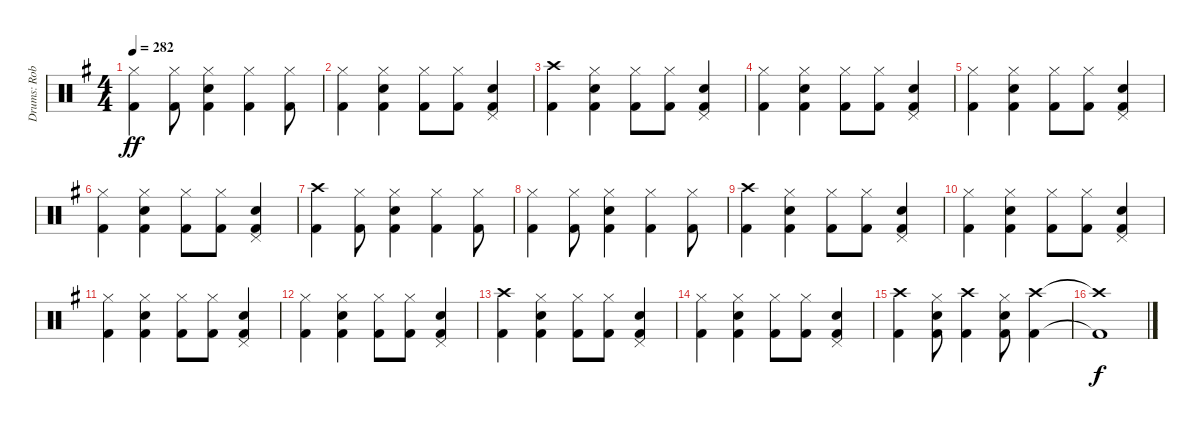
\track ("Drums: Rob" "Drums: Rob") {instrument percussion}
\staff {score}
\articulation defaults
\ts (4 4)
\tempo 282
\clef neutral
\ks g
("Hi-Hat (closed)" "Kick (hit) 2").4{dy ff} ("Hi-Hat (closed)" "Kick (hit) 2").8 ("Hi-Hat (closed)" "Snare (hit) 2" "Kick (hit) 2").4 ("Hi-Hat (closed)" "Kick (hit) 2").4 ("Hi-Hat (closed)" "Kick (hit) 2").8 |
("Hi-Hat (closed)" "Kick (hit) 2").4 ("Hi-Hat (closed)" "Snare (hit) 2" "Kick (hit) 2").4 ("Hi-Hat (closed)" "Kick (hit) 2").8 ("Hi-Hat (closed)" "Kick (hit) 2").8 ("Pedal Hi-Hat (hit)" "Snare (hit) 2" "Kick (hit) 2").4 |
("Crash high (hit)" "Kick (hit) 2").4 ("Hi-Hat (closed)" "Snare (hit) 2" "Kick (hit) 2").4 ("Hi-Hat (closed)" "Kick (hit) 2").8 ("Hi-Hat (closed)" "Kick (hit) 2").8 ("Pedal Hi-Hat (hit)" "Snare (hit) 2" "Kick (hit) 2").4 |
("Hi-Hat (closed)" "Kick (hit) 2").4 ("Hi-Hat (closed)" "Snare (hit) 2" "Kick (hit) 2").4 ("Hi-Hat (closed)" "Kick (hit) 2").8 ("Hi-Hat (closed)" "Kick (hit) 2").8 ("Pedal Hi-Hat (hit)" "Snare (hit) 2" "Kick (hit) 2").4 |
("Hi-Hat (closed)" "Kick (hit) 2").4 ("Hi-Hat (closed)" "Snare (hit) 2" "Kick (hit) 2").4 ("Hi-Hat (closed)" "Kick (hit) 2").8 ("Hi-Hat (closed)" "Kick (hit) 2").8 ("Pedal Hi-Hat (hit)" "Snare (hit) 2" "Kick (hit) 2").4 |
("Hi-Hat (closed)" "Kick (hit) 2").4 ("Hi-Hat (closed)" "Snare (hit) 2" "Kick (hit) 2").4 ("Hi-Hat (closed)" "Kick (hit) 2").8 ("Hi-Hat (closed)" "Kick (hit) 2").8 ("Pedal Hi-Hat (hit)" "Snare (hit) 2" "Kick (hit) 2").4 |
("Crash high (hit)" "Kick (hit) 2").4 ("Hi-Hat (closed)" "Kick (hit) 2").8 ("Hi-Hat (closed)" "Snare (hit) 2" "Kick (hit) 2").4 ("Hi-Hat (closed)" "Kick (hit) 2").4 ("Hi-Hat (closed)" "Kick (hit) 2").8 |
("Hi-Hat (closed)" "Kick (hit) 2").4 ("Hi-Hat (closed)" "Kick (hit) 2").8 ("Hi-Hat (closed)" "Snare (hit) 2" "Kick (hit) 2").4 ("Hi-Hat (closed)" "Kick (hit) 2").4 ("Hi-Hat (closed)" "Kick (hit) 2").8 |
("Crash high (hit)" "Kick (hit) 2").4 ("Hi-Hat (closed)" "Snare (hit) 2" "Kick (hit) 2").4 ("Hi-Hat (closed)" "Kick (hit) 2").8 ("Hi-Hat (closed)" "Kick (hit) 2").8 ("Pedal Hi-Hat (hit)" "Snare (hit) 2" "Kick (hit) 2").4 |
("Hi-Hat (closed)" "Kick (hit) 2").4 ("Hi-Hat (closed)" "Snare (hit) 2" "Kick (hit) 2").4 ("Hi-Hat (closed)" "Kick (hit) 2").8 ("Hi-Hat (closed)" "Kick (hit) 2").8 ("Pedal Hi-Hat (hit)" "Snare (hit) 2" "Kick (hit) 2").4 |
("Hi-Hat (closed)" "Kick (hit) 2").4 ("Hi-Hat (closed)" "Snare (hit) 2" "Kick (hit) 2").4 ("Hi-Hat (closed)" "Kick (hit) 2").8 ("Hi-Hat (closed)" "Kick (hit) 2").8 ("Pedal Hi-Hat (hit)" "Snare (hit) 2" "Kick (hit) 2").4 |
("Hi-Hat (closed)" "Kick (hit) 2").4 ("Hi-Hat (closed)" "Snare (hit) 2" "Kick (hit) 2").4 ("Hi-Hat (closed)" "Kick (hit) 2").8 ("Hi-Hat (closed)" "Kick (hit) 2").8 ("Pedal Hi-Hat (hit)" "Snare (hit) 2" "Kick (hit) 2").4 |
("Crash high (hit)" "Kick (hit) 2").4 ("Hi-Hat (closed)" "Snare (hit) 2" "Kick (hit) 2").4 ("Hi-Hat (closed)" "Kick (hit) 2").8 ("Hi-Hat (closed)" "Kick (hit) 2").8 ("Pedal Hi-Hat (hit)" "Snare (hit) 2" "Kick (hit) 2").4 |
("Hi-Hat (closed)" "Kick (hit) 2").4 ("Hi-Hat (closed)" "Snare (hit) 2" "Kick (hit) 2").4 ("Hi-Hat (closed)" "Kick (hit) 2").8 ("Hi-Hat (closed)" "Kick (hit) 2").8 ("Pedal Hi-Hat (hit)" "Snare (hit) 2" "Kick (hit) 2").4 |
("Crash high (hit)" "Kick (hit) 2").4 ("Hi-Hat (closed)" "Snare (hit) 2" "Kick (hit) 2").8 ("Crash high (hit)" "Kick (hit) 2").4 ("Hi-Hat (closed)" "Snare (hit) 2" "Kick (hit) 2").8 ("Crash high (hit)" "Kick (hit) 2").4 |
("Crash high (hit)"{t} "Kick (hit) 2"{t}).1{dy f}
